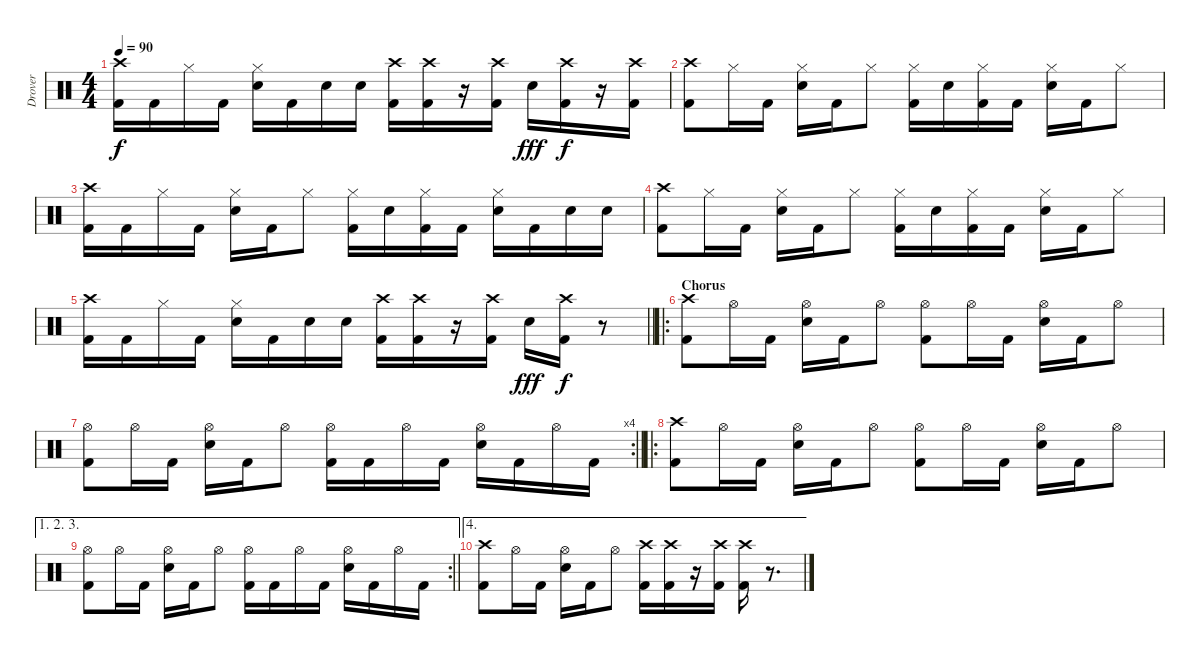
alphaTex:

\track ("Drover" "Drover") {instrument percussion}
\staff {score}
\articulation defaults
\ts (4 4)
\tempo 90
\clef neutral
\ks c
("Crash high (hit)" "Kick (hit) 2").16{dy f} "Kick (hit) 2".16 "Hi-Hat (closed)".16 "Kick (hit) 2".16 ("Hi-Hat (closed)" "Snare (hit) 2").16 "Kick (hit) 2".16 "Snare (hit) 2".16 "Snare (hit) 2".16 ("Crash high (hit)" "Kick (hit) 2").16 ("Crash high (hit)" "Kick (hit) 2").16 r.16 ("Crash high (hit)" "Kick (hit) 2").16 "Snare (hit) 2".16{dy fff} ("Crash high (hit)" "Kick (hit) 2").16{dy f} r.16 ("Crash high (hit)" "Kick (hit) 2").16 |
("Crash high (hit)" "Kick (hit) 2").8 "Hi-Hat (closed)".16 "Kick (hit) 2".16 ("Hi-Hat (closed)" "Snare (hit) 2").16 "Kick (hit) 2".16 "Hi-Hat (closed)".8 ("Hi-Hat (closed)" "Kick (hit) 2").16 "Snare (hit) 2".16 ("Hi-Hat (closed)" "Kick (hit) 2").16 "Kick (hit) 2".16 ("Hi-Hat (closed)" "Snare (hit) 2").16 "Kick (hit) 2".16 "Hi-Hat (closed)".8 |
("Crash high (hit)" "Kick (hit) 2").16 "Kick (hit) 2".16 "Hi-Hat (closed)".16 "Kick (hit) 2".16 ("Hi-Hat (closed)" "Snare (hit) 2").16 "Kick (hit) 2".16 "Hi-Hat (closed)".8 ("Hi-Hat (closed)" "Kick (hit) 2").16 "Snare (hit) 2".16 ("Hi-Hat (closed)" "Kick (hit) 2").16 "Kick (hit) 2".16 ("Hi-Hat (closed)" "Snare (hit) 2").16 "Kick (hit) 2".16 "Snare (hit) 2".16 "Snare (hit) 2".16 |
("Crash high (hit)" "Kick (hit) 2").8 "Hi-Hat (closed)".16 "Kick (hit) 2".16 ("Hi-Hat (closed)" "Snare (hit) 2").16 "Kick (hit) 2".16 "Hi-Hat (closed)".8 ("Hi-Hat (closed)" "Kick (hit) 2").16 "Snare (hit) 2".16 ("Hi-Hat (closed)" "Kick (hit) 2").16 "Kick (hit) 2".16 ("Hi-Hat (closed)" "Snare (hit) 2").16 "Kick (hit) 2".16 "Hi-Hat (closed)".8 |
\barLineRight lightlight
("Crash high (hit)" "Kick (hit) 2").16 "Kick (hit) 2".16 "Hi-Hat (closed)".16 "Kick (hit) 2".16 ("Hi-Hat (closed)" "Snare (hit) 2").16 "Kick (hit) 2".16 "Snare (hit) 2".16 "Snare (hit) 2".16 ("Crash high (hit)" "Kick (hit) 2").16 ("Crash high (hit)" "Kick (hit) 2").16 r.16 ("Crash high (hit)" "Kick (hit) 2").16 "Snare (hit) 2".16{dy fff} ("Crash high (hit)" "Kick (hit) 2").16{dy f} r.8 |
\ro
\section ("" "Chorus")
("Crash high (hit)" "Kick (hit) 2").8 "Hi-Hat (open)".16 "Kick (hit) 2".16 ("Hi-Hat (open)" "Snare (hit) 2").16 "Kick (hit) 2".16 "Hi-Hat (open)".8 ("Hi-Hat (open)" "Kick (hit) 2").8 "Hi-Hat (open)".16 "Kick (hit) 2".16 ("Hi-Hat (open)" "Snare (hit) 2").16 "Kick (hit) 2".16 "Hi-Hat (open)".8 |
\rc 4
\barLineRight lightlight
("Hi-Hat (open)" "Kick (hit) 2").8 "Hi-Hat (open)".16 "Kick (hit) 2".16 ("Hi-Hat (open)" "Snare (hit) 2").16 "Kick (hit) 2".16 "Hi-Hat (open)".8 ("Hi-Hat (open)" "Kick (hit) 2").16 "Kick (hit) 2".16 "Hi-Hat (open)".16 "Kick (hit) 2".16 ("Hi-Hat (open)" "Snare (hit) 2").16 "Kick (hit) 2".16 "Hi-Hat (open)".16 "Kick (hit) 2".16 |
\ro
("Crash high (hit)" "Kick (hit) 2").8 "Hi-Hat (open)".16 "Kick (hit) 2".16 ("Hi-Hat (open)" "Snare (hit) 2").16 "Kick (hit) 2".16 "Hi-Hat (open)".8 ("Hi-Hat (open)" "Kick (hit) 2").8 "Hi-Hat (open)".16 "Kick (hit) 2".16 ("Hi-Hat (open)" "Snare (hit) 2").16 "Kick (hit) 2".16 "Hi-Hat (open)".8 |
\ae (1 2 3)
\rc 2
\barLineRight lightlight
("Hi-Hat (open)" "Kick (hit) 2").8 "Hi-Hat (open)".16 "Kick (hit) 2".16 ("Hi-Hat (open)" "Snare (hit) 2").16 "Kick (hit) 2".16 "Hi-Hat (open)".8 ("Hi-Hat (open)" "Kick (hit) 2").16 "Kick (hit) 2".16 "Hi-Hat (open)".16 "Kick (hit) 2".16 ("Hi-Hat (open)" "Snare (hit) 2").16 "Kick (hit) 2".16 "Hi-Hat (open)".16 "Kick (hit) 2".16 |
\ae 4
("Crash high (hit)" "Kick (hit) 2").8 "Hi-Hat (open)".16 "Kick (hit) 2".16 ("Hi-Hat (open)" "Snare (hit) 2").16 "Kick (hit) 2".16 "Hi-Hat (open)".8 ("Crash high (hit)" "Kick (hit) 2").16 ("Crash high (hit)" "Kick (hit) 2").16 r.16 ("Crash high (hit)" "Kick (hit) 2").16 ("Crash high (hit)" "Kick (hit) 2").16 r.8{d}
